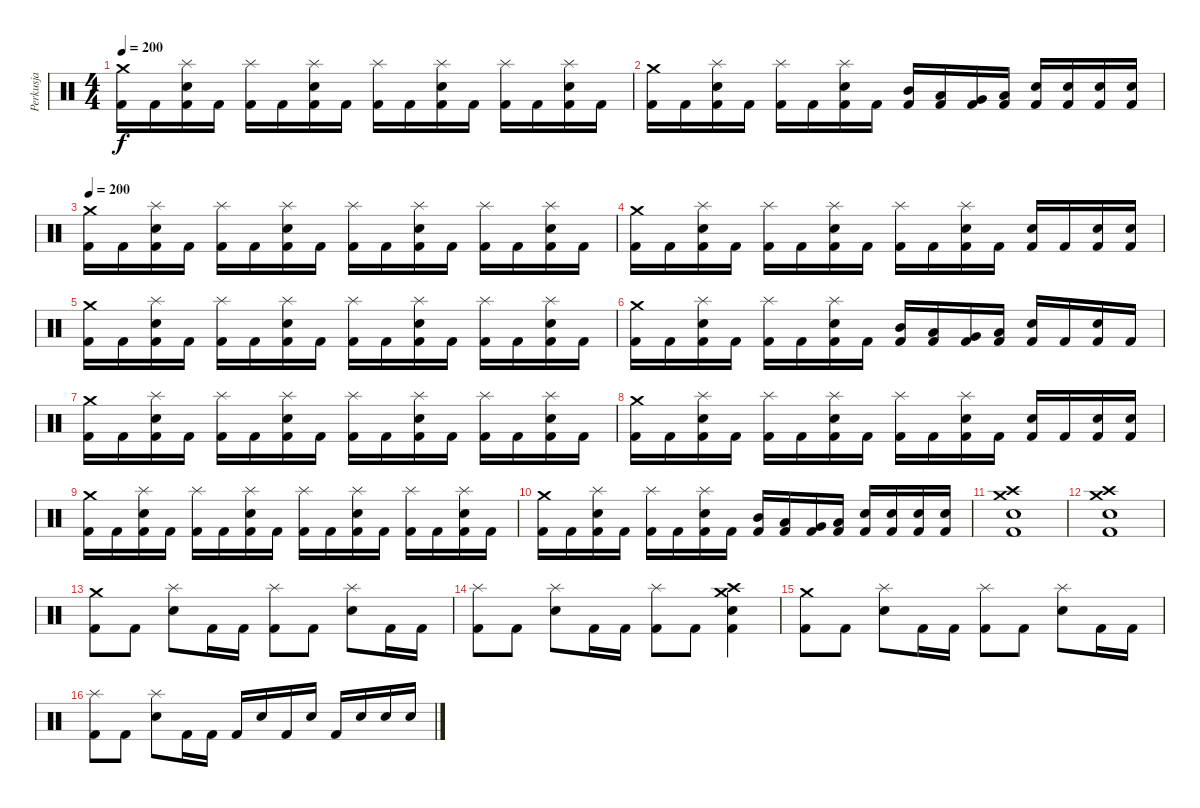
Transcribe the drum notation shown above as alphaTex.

\track ("Perkusja" "Perkusja") {instrument percussion}
\staff {score}
\articulation defaults
\ts (4 4)
\tempo 200
\clef neutral
\ks c
("Crash medium (hit)" "Kick (hit) 2").16{dy f} "Kick (hit) 2".16 ("Splash (hit)" "Electric Snare (hit)" "Kick (hit) 2").16 "Kick (hit) 2".16 ("Splash (hit)" "Kick (hit) 2").16 "Kick (hit) 2".16 ("Splash (hit)" "Electric Snare (hit)" "Kick (hit) 2").16 "Kick (hit) 2".16 ("Splash (hit)" "Kick (hit) 2").16 "Kick (hit) 2".16 ("Splash (hit)" "Electric Snare (hit)" "Kick (hit) 2").16 "Kick (hit) 2".16 ("Splash (hit)" "Kick (hit) 2").16 "Kick (hit) 2".16 ("Splash (hit)" "Electric Snare (hit)" "Kick (hit) 2").16 "Kick (hit) 2".16 |
("Crash medium (hit)" "Kick (hit) 2").16 "Kick (hit) 2".16 ("Splash (hit)" "Electric Snare (hit)" "Kick (hit) 2").16 "Kick (hit) 2".16 ("Splash (hit)" "Kick (hit) 2").16 "Kick (hit) 2".16 ("Splash (hit)" "Electric Snare (hit)" "Kick (hit) 2").16 "Kick (hit) 2".16 ("Mid Tom (hit)" "Kick (hit) 2").16 ("Low Tom (hit)" "Kick (hit) 2").16 ("Very Low Tom (hit)" "Kick (hit) 2").16 ("Low Floor Tom (hit)" "Kick (hit) 2").16 ("Electric Snare (hit)" "Kick (hit) 2").16 ("Electric Snare (hit)" "Kick (hit) 2").16 ("Electric Snare (hit)" "Kick (hit) 2").16 ("Electric Snare (hit)" "Kick (hit) 2").16 |
\tempo 200
("Crash medium (hit)" "Kick (hit) 2").16 "Kick (hit) 2".16 ("Splash (hit)" "Electric Snare (hit)" "Kick (hit) 2").16 "Kick (hit) 2".16 ("Splash (hit)" "Kick (hit) 2").16 "Kick (hit) 2".16 ("Splash (hit)" "Electric Snare (hit)" "Kick (hit) 2").16 "Kick (hit) 2".16 ("Splash (hit)" "Kick (hit) 2").16 "Kick (hit) 2".16 ("Splash (hit)" "Electric Snare (hit)" "Kick (hit) 2").16 "Kick (hit) 2".16 ("Splash (hit)" "Kick (hit) 2").16 "Kick (hit) 2".16 ("Splash (hit)" "Electric Snare (hit)" "Kick (hit) 2").16 "Kick (hit) 2".16 |
("Crash medium (hit)" "Kick (hit) 2").16 "Kick (hit) 2".16 ("Splash (hit)" "Electric Snare (hit)" "Kick (hit) 2").16 "Kick (hit) 2".16 ("Splash (hit)" "Kick (hit) 2").16 "Kick (hit) 2".16 ("Splash (hit)" "Electric Snare (hit)" "Kick (hit) 2").16 "Kick (hit) 2".16 ("Splash (hit)" "Kick (hit) 2").16 "Kick (hit) 2".16 ("Splash (hit)" "Electric Snare (hit)" "Kick (hit) 2").16 "Kick (hit) 2".16 ("Electric Snare (hit)" "Kick (hit) 2").16 "Kick (hit) 2".16 ("Electric Snare (hit)" "Kick (hit) 2").16 ("Electric Snare (hit)" "Kick (hit) 2").16 |
("Crash medium (hit)" "Kick (hit) 2").16 "Kick (hit) 2".16 ("Splash (hit)" "Electric Snare (hit)" "Kick (hit) 2").16 "Kick (hit) 2".16 ("Splash (hit)" "Kick (hit) 2").16 "Kick (hit) 2".16 ("Splash (hit)" "Electric Snare (hit)" "Kick (hit) 2").16 "Kick (hit) 2".16 ("Splash (hit)" "Kick (hit) 2").16 "Kick (hit) 2".16 ("Splash (hit)" "Electric Snare (hit)" "Kick (hit) 2").16 "Kick (hit) 2".16 ("Splash (hit)" "Kick (hit) 2").16 "Kick (hit) 2".16 ("Splash (hit)" "Electric Snare (hit)" "Kick (hit) 2").16 "Kick (hit) 2".16 |
("Crash medium (hit)" "Kick (hit) 2").16 "Kick (hit) 2".16 ("Splash (hit)" "Electric Snare (hit)" "Kick (hit) 2").16 "Kick (hit) 2".16 ("Splash (hit)" "Kick (hit) 2").16 "Kick (hit) 2".16 ("Splash (hit)" "Electric Snare (hit)" "Kick (hit) 2").16 "Kick (hit) 2".16 ("Mid Tom (hit)" "Kick (hit) 2").16 ("Low Tom (hit)" "Kick (hit) 2").16 ("Very Low Tom (hit)" "Kick (hit) 2").16 ("Low Floor Tom (hit)" "Kick (hit) 2").16 ("Electric Snare (hit)" "Kick (hit) 2").16 "Kick (hit) 2".16 ("Electric Snare (hit)" "Kick (hit) 2").16 "Kick (hit) 2".16 |
("Crash medium (hit)" "Kick (hit) 2").16 "Kick (hit) 2".16 ("Splash (hit)" "Electric Snare (hit)" "Kick (hit) 2").16 "Kick (hit) 2".16 ("Splash (hit)" "Kick (hit) 2").16 "Kick (hit) 2".16 ("Splash (hit)" "Electric Snare (hit)" "Kick (hit) 2").16 "Kick (hit) 2".16 ("Splash (hit)" "Kick (hit) 2").16 "Kick (hit) 2".16 ("Splash (hit)" "Electric Snare (hit)" "Kick (hit) 2").16 "Kick (hit) 2".16 ("Splash (hit)" "Kick (hit) 2").16 "Kick (hit) 2".16 ("Splash (hit)" "Electric Snare (hit)" "Kick (hit) 2").16 "Kick (hit) 2".16 |
("Crash medium (hit)" "Kick (hit) 2").16 "Kick (hit) 2".16 ("Splash (hit)" "Electric Snare (hit)" "Kick (hit) 2").16 "Kick (hit) 2".16 ("Splash (hit)" "Kick (hit) 2").16 "Kick (hit) 2".16 ("Splash (hit)" "Electric Snare (hit)" "Kick (hit) 2").16 "Kick (hit) 2".16 ("Splash (hit)" "Kick (hit) 2").16 "Kick (hit) 2".16 ("Splash (hit)" "Electric Snare (hit)" "Kick (hit) 2").16 "Kick (hit) 2".16 ("Electric Snare (hit)" "Kick (hit) 2").16 "Kick (hit) 2".16 ("Electric Snare (hit)" "Kick (hit) 2").16 ("Electric Snare (hit)" "Kick (hit) 2").16 |
("Crash medium (hit)" "Kick (hit) 2").16 "Kick (hit) 2".16 ("Splash (hit)" "Electric Snare (hit)" "Kick (hit) 2").16 "Kick (hit) 2".16 ("Splash (hit)" "Kick (hit) 2").16 "Kick (hit) 2".16 ("Splash (hit)" "Electric Snare (hit)" "Kick (hit) 2").16 "Kick (hit) 2".16 ("Splash (hit)" "Kick (hit) 2").16 "Kick (hit) 2".16 ("Splash (hit)" "Electric Snare (hit)" "Kick (hit) 2").16 "Kick (hit) 2".16 ("Splash (hit)" "Kick (hit) 2").16 "Kick (hit) 2".16 ("Splash (hit)" "Electric Snare (hit)" "Kick (hit) 2").16 "Kick (hit) 2".16 |
("Crash medium (hit)" "Kick (hit) 2").16 "Kick (hit) 2".16 ("Splash (hit)" "Electric Snare (hit)" "Kick (hit) 2").16 "Kick (hit) 2".16 ("Splash (hit)" "Kick (hit) 2").16 "Kick (hit) 2".16 ("Splash (hit)" "Electric Snare (hit)" "Kick (hit) 2").16 "Kick (hit) 2".16 ("Mid Tom (hit)" "Kick (hit) 2").16 ("Low Tom (hit)" "Kick (hit) 2").16 ("Very Low Tom (hit)" "Kick (hit) 2").16 ("Low Floor Tom (hit)" "Kick (hit) 2").16 ("Electric Snare (hit)" "Kick (hit) 2").16 ("Electric Snare (hit)" "Kick (hit) 2").16 ("Electric Snare (hit)" "Kick (hit) 2").16 ("Electric Snare (hit)" "Kick (hit) 2").16 |
("Crash medium (hit)" "Crash high (hit)" "Snare (hit) 2" "Kick (hit) 2").1 |
("Crash medium (hit)" "Crash high (hit)" "Snare (hit) 2" "Kick (hit) 2").1 |
("Crash medium (hit)" "Kick (hit) 2").8 "Kick (hit) 2".8 ("Splash (hit)" "Electric Snare (hit)").8 "Kick (hit) 2".16 "Kick (hit) 2".16 ("Splash (hit)" "Kick (hit) 2").8 "Kick (hit) 2".8 ("Splash (hit)" "Electric Snare (hit)").8 "Kick (hit) 2".16 "Kick (hit) 2".16 |
("Splash (hit)" "Kick (hit) 2").8 "Kick (hit) 2".8 ("Splash (hit)" "Electric Snare (hit)").8 "Kick (hit) 2".16 "Kick (hit) 2".16 ("Splash (hit)" "Kick (hit) 2").8 "Kick (hit) 2".8 ("Crash medium (hit)" "Crash high (hit)" "Electric Snare (hit)" "Kick (hit) 2").4 |
("Crash medium (hit)" "Kick (hit) 2").8 "Kick (hit) 2".8 ("Splash (hit)" "Electric Snare (hit)").8 "Kick (hit) 2".16 "Kick (hit) 2".16 ("Splash (hit)" "Kick (hit) 2").8 "Kick (hit) 2".8 ("Splash (hit)" "Electric Snare (hit)").8 "Kick (hit) 2".16 "Kick (hit) 2".16 |
("Splash (hit)" "Kick (hit) 2").8 "Kick (hit) 2".8 ("Splash (hit)" "Electric Snare (hit)").8 "Kick (hit) 2".16 "Kick (hit) 2".16 "Kick (hit) 2".16 "Electric Snare (hit)".16 "Kick (hit) 2".16 "Electric Snare (hit)".16 "Kick (hit) 2".16 "Electric Snare (hit)".16 "Electric Snare (hit)".16 "Electric Snare (hit)".16
